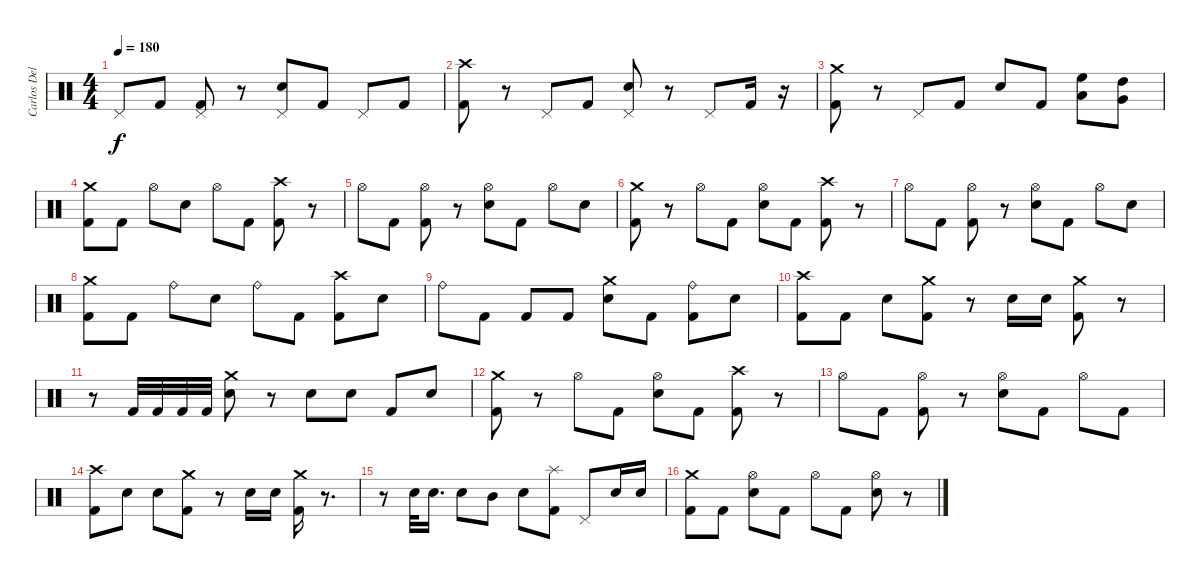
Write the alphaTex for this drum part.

\track ("Carlos Delgado" "Carlos Del") {instrument percussion}
\staff {score}
\articulation defaults
\ts (4 4)
\tempo 180
\clef neutral
\ks c "Pedal Hi-Hat (hit)".8{dy f} "Kick (hit) 2".8
("Pedal Hi-Hat (hit)" "Kick (hit) 2").8 r.8 ("Pedal Hi-Hat (hit)" "Electric Snare (hit)").8 "Kick (hit) 2".8 "Pedal Hi-Hat (hit)".8 "Kick (hit) 2".8 |
("Crash high (hit)" "Kick (hit) 2").8 r.8 "Pedal Hi-Hat (hit)".8 "Kick (hit) 2".8 ("Pedal Hi-Hat (hit)" "Electric Snare (hit)").8 r.8 "Pedal Hi-Hat (hit)".8 "Kick (hit) 2".16 r.16 |
("Crash medium (hit)" "Kick (hit) 2").8 r.8 "Pedal Hi-Hat (hit)".8 "Kick (hit) 2".8 "Electric Snare (hit)".8 "Kick (hit) 2".8 ("Low Tom (hit)" "High Floor Tom (hit)").8 ("High Tom (hit)" "Very Low Tom (hit)").8 |
("Crash medium (hit)" "Kick (hit) 2").8 "Kick (hit) 2".8 "Hi-Hat (open)".8 "Electric Snare (hit)".8 "Hi-Hat (open)".8 "Kick (hit) 2".8 ("Crash high (hit)" "Kick (hit) 2").8 r.8 |
"Hi-Hat (open)".8 "Kick (hit) 2".8 ("Hi-Hat (open)" "Kick (hit) 2").8 r.8 ("Hi-Hat (open)" "Electric Snare (hit)").8 "Kick (hit) 2".8 "Hi-Hat (open)".8 "Electric Snare (hit)".8 |
("Crash medium (hit)" "Kick (hit) 2").8 r.8 "Hi-Hat (open)".8 "Kick (hit) 2".8 ("Hi-Hat (open)" "Electric Snare (hit)").8 "Kick (hit) 2".8 ("Crash high (hit)" "Kick (hit) 2").8 r.8 |
"Hi-Hat (open)".8 "Kick (hit) 2".8 ("Hi-Hat (open)" "Kick (hit) 2").8 r.8 ("Electric Snare (hit)" "Hi-Hat (open)").8 "Kick (hit) 2".8 "Hi-Hat (open)".8 "Electric Snare (hit)".8 |
("Crash medium (hit)" "Kick (hit) 2").8 "Kick (hit) 2".8 "Ride (bell)".8 "Electric Snare (hit)".8 "Ride (bell)".8 "Kick (hit) 2".8 ("Kick (hit) 2" "Crash high (hit)").8 "Electric Snare (hit)".8 |
"Ride (bell)".8 "Kick (hit) 2".8 "Kick (hit) 2".8 "Kick (hit) 2".8 ("Crash medium (hit)" "Electric Snare (hit)").8 "Kick (hit) 2".8 ("Ride (bell)" "Kick (hit) 2").8 "Electric Snare (hit)".8 |
("Kick (hit) 2" "Crash high (hit)").8 "Kick (hit) 2".8 "Electric Snare (hit)".8 ("Crash medium (hit)" "Kick (hit) 2").8 r.8 "Electric Snare (hit)".16 "Electric Snare (hit)".16 ("Crash medium (hit)" "Kick (hit) 2").8 r.8 |
r.8 "Kick (hit) 2".32 "Kick (hit) 2".32 "Kick (hit) 2".32 "Kick (hit) 2".32 ("Electric Snare (hit)" "Crash medium (hit)").8 r.8 "Electric Snare (hit)".8 "Electric Snare (hit)".8 "Kick (hit) 2".8 "Electric Snare (hit)".8 |
("Crash medium (hit)" "Kick (hit) 2").8 r.8 "Hi-Hat (open)".8 "Kick (hit) 2".8 ("Hi-Hat (open)" "Electric Snare (hit)").8 "Kick (hit) 2".8 ("Crash high (hit)" "Kick (hit) 2").8 r.8 |
"Hi-Hat (open)".8 "Kick (hit) 2".8 ("Hi-Hat (open)" "Kick (hit) 2").8 r.8 ("Hi-Hat (open)" "Electric Snare (hit)").8 "Kick (hit) 2".8 "Hi-Hat (open)".8 "Kick (hit) 2".8 |
("Crash high (hit)" "Kick (hit) 2").8 "Electric Snare (hit)".8 "Electric Snare (hit)".8 ("Crash medium (hit)" "Kick (hit) 2").8 r.8 "Electric Snare (hit)".16 "Electric Snare (hit)".16 ("Crash medium (hit)" "Kick (hit) 2").16 r.8{d} |
r.8 "Electric Snare (hit)".32 "Electric Snare (hit)".16{d} "Electric Snare (hit)".8 "Mid Tom (hit)".8 "Electric Snare (hit)".8 ("Splash (hit)" "Kick (hit) 2").8 "Pedal Hi-Hat (hit)".8 "Electric Snare (hit)".16 "Electric Snare (hit)".16 |
("Crash medium (hit)" "Kick (hit) 2").8 "Kick (hit) 2".8 ("Hi-Hat (open)" "Electric Snare (hit)").8 "Kick (hit) 2".8 "Hi-Hat (open)".8 "Kick (hit) 2".8 ("Hi-Hat (open)" "Electric Snare (hit)").8 r.8
